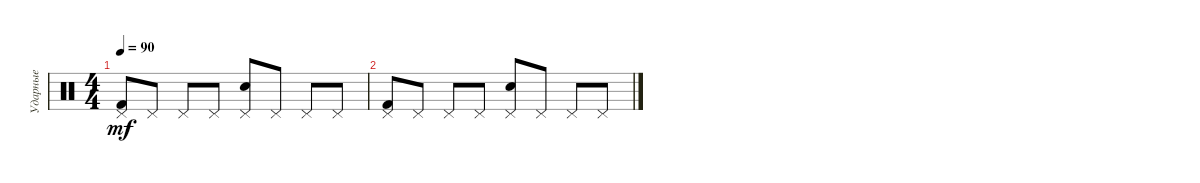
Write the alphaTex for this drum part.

\track ("Ударные" "Ударные") {instrument percussion}
\staff {score}
\articulation defaults
\ts (4 4)
\tempo 90
\clef neutral
\ks c
("Pedal Hi-Hat (hit)" "Kick (hit) 2").8{dy mf} "Pedal Hi-Hat (hit)".8 "Pedal Hi-Hat (hit)".8 "Pedal Hi-Hat (hit)".8 ("Pedal Hi-Hat (hit)" "Snare (hit) 2").8 "Pedal Hi-Hat (hit)".8 "Pedal Hi-Hat (hit)".8 "Pedal Hi-Hat (hit)".8 |
("Pedal Hi-Hat (hit)" "Kick (hit) 2").8 "Pedal Hi-Hat (hit)".8 "Pedal Hi-Hat (hit)".8 "Pedal Hi-Hat (hit)".8 ("Pedal Hi-Hat (hit)" "Snare (hit) 2").8 "Pedal Hi-Hat (hit)".8 "Pedal Hi-Hat (hit)".8 "Pedal Hi-Hat (hit)".8
